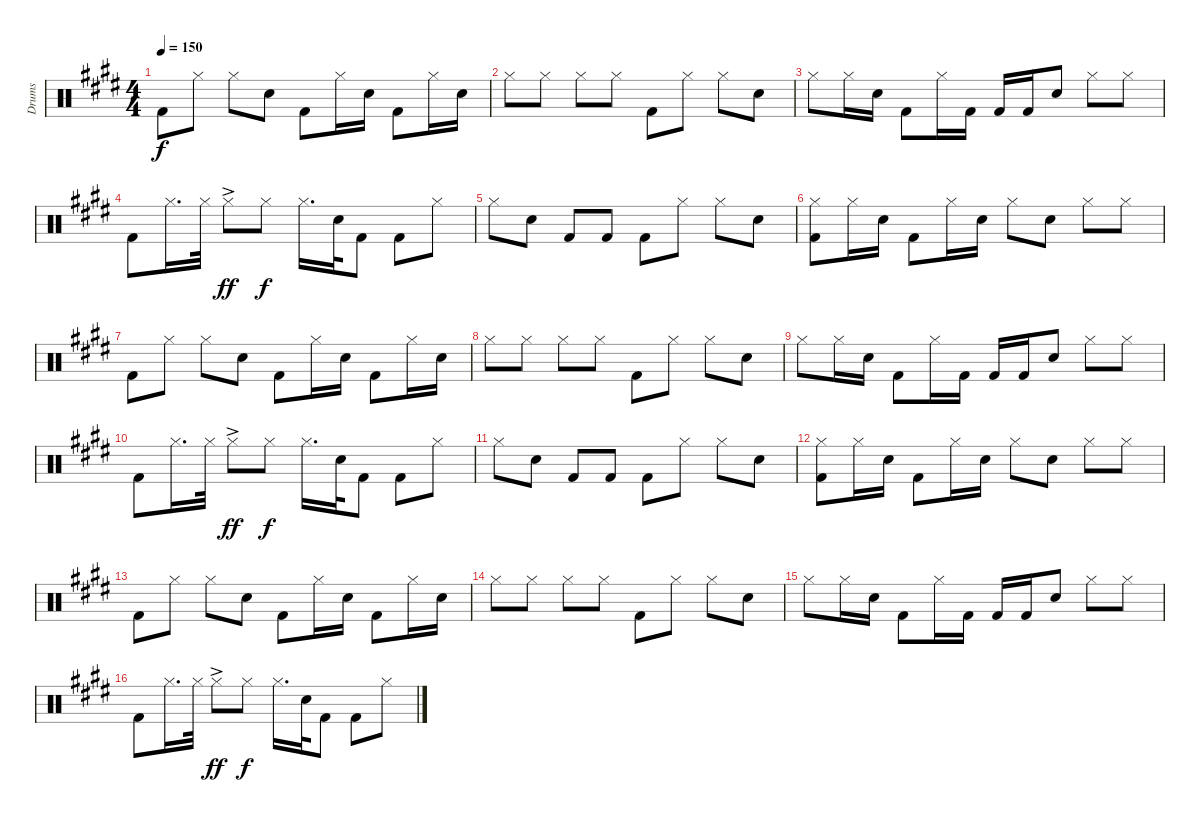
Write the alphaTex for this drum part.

\track ("Drums" "Drums") {instrument percussion bank 15}
\staff {score}
\articulation defaults
\ts (4 4)
\tempo 150
\clef neutral
\ks e "Kick (hit) 2".8{dy f} "Hi-Hat (closed)".8 "Hi-Hat (closed)".8 "Snare (hit) 2".8 "Kick (hit) 2".8 "Hi-Hat (closed)".16 "Snare (hit) 2".16 "Kick (hit) 2".8 "Hi-Hat (closed)".16 "Snare (hit) 2".16
|
"Hi-Hat (closed)".8 "Hi-Hat (closed)".8 "Hi-Hat (closed)".8 "Hi-Hat (closed)".8 "Kick (hit) 2".8 "Hi-Hat (closed)".8 "Hi-Hat (closed)".8 "Snare (hit) 2".8 |
"Hi-Hat (closed)".8 "Hi-Hat (closed)".16 "Snare (hit) 2".16 "Kick (hit) 2".8 "Hi-Hat (closed)".16 "Kick (hit) 2".16 "Kick (hit) 2".16 "Kick (hit) 2".16 "Snare (hit) 2".8 "Hi-Hat (closed)".8 "Hi-Hat (closed)".8 |
"Kick (hit) 2".8 "Hi-Hat (closed)".16{d} "Hi-Hat (closed)".32 "Hi-Hat (closed)"{ac}.8{dy ff} "Hi-Hat (closed)".8{dy f} "Hi-Hat (closed)".16{d} "Snare (hit) 2".32 "Kick (hit) 2".8 "Kick (hit) 2".8 "Hi-Hat (closed)".8 |
"Hi-Hat (closed)".8 "Snare (hit) 2".8 "Kick (hit) 2".8 "Kick (hit) 2".8 "Kick (hit) 2".8 "Hi-Hat (closed)".8 "Hi-Hat (closed)".8 "Snare (hit) 2".8 |
("Hi-Hat (closed)" "Kick (hit) 2").8 "Hi-Hat (closed)".16 "Snare (hit) 2".16 "Kick (hit) 2".8 "Hi-Hat (closed)".16 "Snare (hit) 2".16 "Hi-Hat (closed)".8 "Snare (hit) 2".8 "Hi-Hat (closed)".8 "Hi-Hat (closed)".8 |
"Kick (hit) 2".8 "Hi-Hat (closed)".8 "Hi-Hat (closed)".8 "Snare (hit) 2".8 "Kick (hit) 2".8 "Hi-Hat (closed)".16 "Snare (hit) 2".16 "Kick (hit) 2".8 "Hi-Hat (closed)".16 "Snare (hit) 2".16 |
"Hi-Hat (closed)".8 "Hi-Hat (closed)".8 "Hi-Hat (closed)".8 "Hi-Hat (closed)".8 "Kick (hit) 2".8 "Hi-Hat (closed)".8 "Hi-Hat (closed)".8 "Snare (hit) 2".8 |
"Hi-Hat (closed)".8 "Hi-Hat (closed)".16 "Snare (hit) 2".16 "Kick (hit) 2".8 "Hi-Hat (closed)".16 "Kick (hit) 2".16 "Kick (hit) 2".16 "Kick (hit) 2".16 "Snare (hit) 2".8 "Hi-Hat (closed)".8 "Hi-Hat (closed)".8 |
"Kick (hit) 2".8 "Hi-Hat (closed)".16{d} "Hi-Hat (closed)".32 "Hi-Hat (closed)"{ac}.8{dy ff} "Hi-Hat (closed)".8{dy f} "Hi-Hat (closed)".16{d} "Snare (hit) 2".32 "Kick (hit) 2".8 "Kick (hit) 2".8 "Hi-Hat (closed)".8 |
"Hi-Hat (closed)".8 "Snare (hit) 2".8 "Kick (hit) 2".8 "Kick (hit) 2".8 "Kick (hit) 2".8 "Hi-Hat (closed)".8 "Hi-Hat (closed)".8 "Snare (hit) 2".8 |
("Hi-Hat (closed)" "Kick (hit) 2").8 "Hi-Hat (closed)".16 "Snare (hit) 2".16 "Kick (hit) 2".8 "Hi-Hat (closed)".16 "Snare (hit) 2".16 "Hi-Hat (closed)".8 "Snare (hit) 2".8 "Hi-Hat (closed)".8 "Hi-Hat (closed)".8 |
"Kick (hit) 2".8 "Hi-Hat (closed)".8 "Hi-Hat (closed)".8 "Snare (hit) 2".8 "Kick (hit) 2".8 "Hi-Hat (closed)".16 "Snare (hit) 2".16 "Kick (hit) 2".8 "Hi-Hat (closed)".16 "Snare (hit) 2".16 |
"Hi-Hat (closed)".8 "Hi-Hat (closed)".8 "Hi-Hat (closed)".8 "Hi-Hat (closed)".8 "Kick (hit) 2".8 "Hi-Hat (closed)".8 "Hi-Hat (closed)".8 "Snare (hit) 2".8 |
"Hi-Hat (closed)".8 "Hi-Hat (closed)".16 "Snare (hit) 2".16 "Kick (hit) 2".8 "Hi-Hat (closed)".16 "Kick (hit) 2".16 "Kick (hit) 2".16 "Kick (hit) 2".16 "Snare (hit) 2".8 "Hi-Hat (closed)".8 "Hi-Hat (closed)".8 |
"Kick (hit) 2".8 "Hi-Hat (closed)".16{d} "Hi-Hat (closed)".32 "Hi-Hat (closed)"{ac}.8{dy ff} "Hi-Hat (closed)".8{dy f} "Hi-Hat (closed)".16{d} "Snare (hit) 2".32 "Kick (hit) 2".8 "Kick (hit) 2".8 "Hi-Hat (closed)".8
